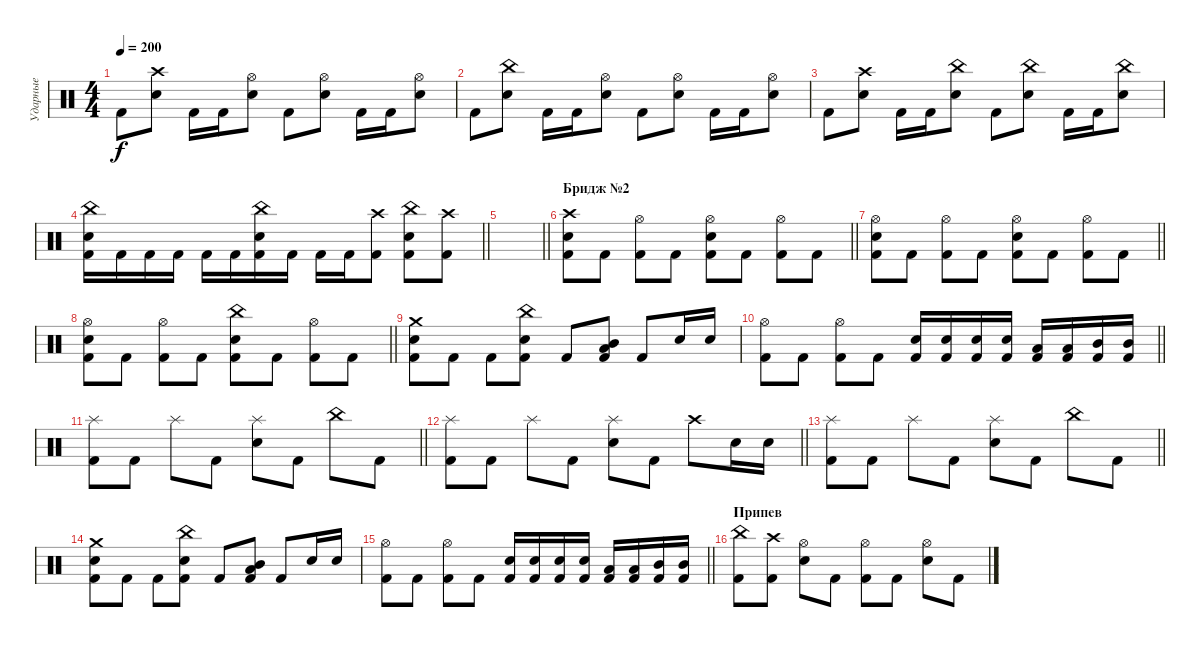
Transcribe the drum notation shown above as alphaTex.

\track ("Ударные" "Ударные") {instrument percussion}
\staff {score}
\articulation defaults
\ts (4 4)
\tempo 200
\clef neutral
\ks c "Kick (hit) 2".8{dy f}
("Electric Snare (hit)" "Crash high (hit)").8 "Kick (hit) 2".16 "Kick (hit) 2".16 ("Electric Snare (hit)" "Hi-Hat (open)").8 "Kick (hit) 2".8 ("Electric Snare (hit)" "Hi-Hat (open)").8 "Kick (hit) 2".16 "Kick (hit) 2".16 ("Electric Snare (hit)" "Hi-Hat (open)").8 |
"Kick (hit) 2".8 ("Electric Snare (hit)" "China (hit)").8 "Kick (hit) 2".16 "Kick (hit) 2".16 ("Electric Snare (hit)" "Hi-Hat (open)").8 "Kick (hit) 2".8 ("Electric Snare (hit)" "Hi-Hat (open)").8 "Kick (hit) 2".16 "Kick (hit) 2".16 ("Electric Snare (hit)" "Hi-Hat (open)").8 |
"Kick (hit) 2".8 ("Electric Snare (hit)" "Crash high (hit)").8 "Kick (hit) 2".16 "Kick (hit) 2".16 ("Electric Snare (hit)" "China (hit)").8 "Kick (hit) 2".8 ("Electric Snare (hit)" "China (hit)").8 "Kick (hit) 2".16 "Kick (hit) 2".16 ("Electric Snare (hit)" "China (hit)").8 |
\barLineRight lightlight
("China (hit)" "Electric Snare (hit)" "Kick (hit) 2").16 "Kick (hit) 2".16 "Kick (hit) 2".16 "Kick (hit) 2".16 "Kick (hit) 2".16 "Kick (hit) 2".16 ("China (hit)" "Electric Snare (hit)" "Kick (hit) 2").16 "Kick (hit) 2".16 "Kick (hit) 2".16 "Kick (hit) 2".16 ("Crash high (hit)" "Kick (hit) 2").8 ("China (hit)" "Electric Snare (hit)" "Kick (hit) 2").8 ("Crash high (hit)" "Kick (hit) 2").8 |
\barLineRight lightlight
|
\section ("" "Бридж №2")
\barLineRight lightlight
("Crash high (hit)" "Electric Snare (hit)" "Kick (hit) 2").8 "Kick (hit) 2".8 ("Hi-Hat (open)" "Kick (hit) 2").8 "Kick (hit) 2".8 ("Hi-Hat (open)" "Electric Snare (hit)" "Kick (hit) 2").8 "Kick (hit) 2".8 ("Hi-Hat (open)" "Kick (hit) 2").8 "Kick (hit) 2".8 |
\barLineRight lightlight
("Hi-Hat (open)" "Electric Snare (hit)" "Kick (hit) 2").8 "Kick (hit) 2".8 ("Hi-Hat (open)" "Kick (hit) 2").8 "Kick (hit) 2".8 ("Hi-Hat (open)" "Electric Snare (hit)" "Kick (hit) 2").8 "Kick (hit) 2".8 ("Hi-Hat (open)" "Kick (hit) 2").8 "Kick (hit) 2".8 |
\barLineRight lightlight
("Hi-Hat (open)" "Electric Snare (hit)" "Kick (hit) 2").8 "Kick (hit) 2".8 ("Hi-Hat (open)" "Kick (hit) 2").8 "Kick (hit) 2".8 ("China (hit)" "Electric Snare (hit)" "Kick (hit) 2").8 "Kick (hit) 2".8 ("Hi-Hat (open)" "Kick (hit) 2").8 "Kick (hit) 2".8 |
("Crash medium (hit)" "Electric Snare (hit)" "Kick (hit) 2").8 "Kick (hit) 2".8 "Kick (hit) 2".8 ("China (hit)" "Electric Snare (hit)" "Kick (hit) 2").8 "Kick (hit) 2".8 ("Mid Tom (hit)" "Low Tom (hit)" "Kick (hit) 2").8 "Kick (hit) 2".8 "Electric Snare (hit)".16 "Electric Snare (hit)".16 |
\barLineRight lightlight
("Hi-Hat (open)" "Kick (hit) 2").8 "Kick (hit) 2".8 ("Hi-Hat (open)" "Kick (hit) 2").8 "Kick (hit) 2".8 ("Electric Snare (hit)" "Kick (hit) 2").16 ("Electric Snare (hit)" "Kick (hit) 2").16 ("Electric Snare (hit)" "Kick (hit) 2").16 ("Electric Snare (hit)" "Kick (hit) 2").16 ("Low Tom (hit)" "Kick (hit) 2").16 ("Low Tom (hit)" "Kick (hit) 2").16 ("Mid Tom (hit)" "Kick (hit) 2").16 ("Mid Tom (hit)" "Kick (hit) 2").16 |
\barLineRight lightlight
("Kick (hit) 2" "Splash (hit)").8 "Kick (hit) 2".8 "Splash (hit)".8 "Kick (hit) 2".8 ("Electric Snare (hit)" "Splash (hit)").8 "Kick (hit) 2".8 "China (hit)".8 "Kick (hit) 2".8 |
\barLineRight lightlight
("Kick (hit) 2" "Splash (hit)").8 "Kick (hit) 2".8 "Splash (hit)".8 "Kick (hit) 2".8 ("Electric Snare (hit)" "Splash (hit)").8 "Kick (hit) 2".8 "Crash high (hit)".8 "Electric Snare (hit)".16 "Electric Snare (hit)".16 |
\barLineRight lightlight
("Kick (hit) 2" "Splash (hit)").8 "Kick (hit) 2".8 "Splash (hit)".8 "Kick (hit) 2".8 ("Electric Snare (hit)" "Splash (hit)").8 "Kick (hit) 2".8 "China (hit)".8 "Kick (hit) 2".8 |
("Crash medium (hit)" "Electric Snare (hit)" "Kick (hit) 2").8 "Kick (hit) 2".8 "Kick (hit) 2".8 ("China (hit)" "Electric Snare (hit)" "Kick (hit) 2").8 "Kick (hit) 2".8 ("Mid Tom (hit)" "Low Tom (hit)" "Kick (hit) 2").8 "Kick (hit) 2".8 "Electric Snare (hit)".16 "Electric Snare (hit)".16 |
\barLineRight lightlight
("Hi-Hat (open)" "Kick (hit) 2").8 "Kick (hit) 2".8 ("Hi-Hat (open)" "Kick (hit) 2").8 "Kick (hit) 2".8 ("Electric Snare (hit)" "Kick (hit) 2").16 ("Electric Snare (hit)" "Kick (hit) 2").16 ("Electric Snare (hit)" "Kick (hit) 2").16 ("Electric Snare (hit)" "Kick (hit) 2").16 ("Low Tom (hit)" "Kick (hit) 2").16 ("Low Tom (hit)" "Kick (hit) 2").16 ("Mid Tom (hit)" "Kick (hit) 2").16 ("Mid Tom (hit)" "Kick (hit) 2").16 |
\section ("" "Припев")
("China (hit)" "Kick (hit) 2").8 ("Crash high (hit)" "Kick (hit) 2").8 ("Hi-Hat (open)" "Electric Snare (hit)").8 "Kick (hit) 2".8 ("Hi-Hat (open)" "Kick (hit) 2").8 "Kick (hit) 2".8 ("Hi-Hat (open)" "Electric Snare (hit)").8 "Kick (hit) 2".8
